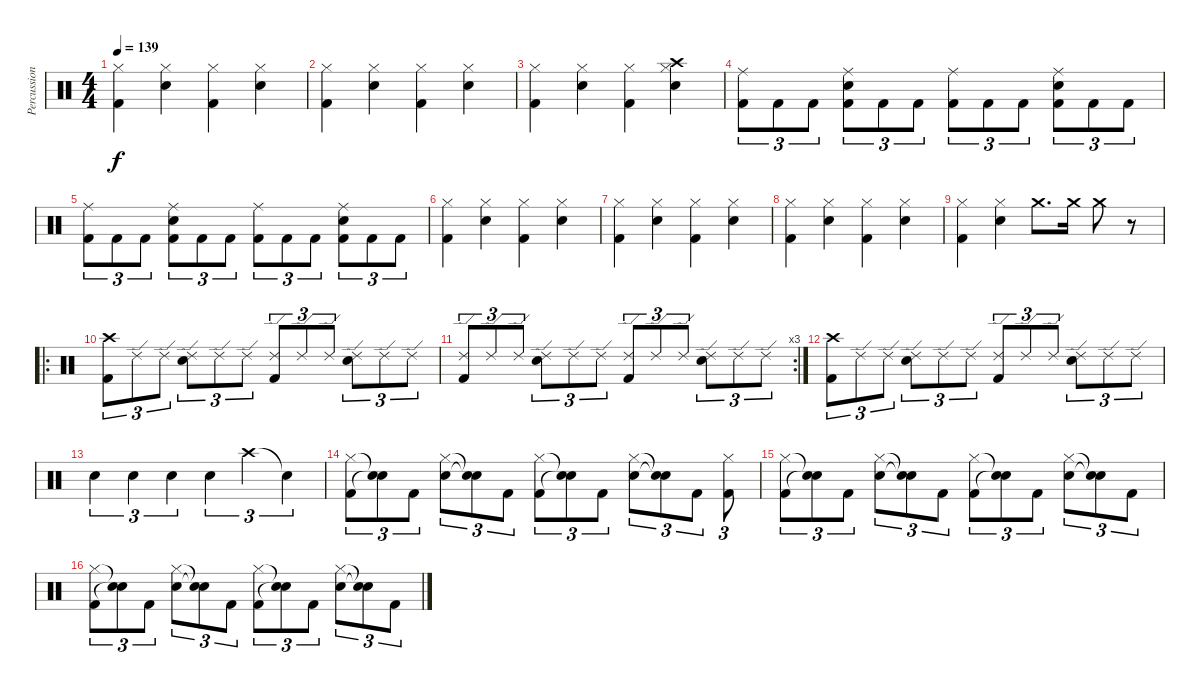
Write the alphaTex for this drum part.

\track ("Percussions" "Percussion") {instrument percussion}
\staff {score}
\articulation defaults
\ts (4 4)
\tempo 139
\clef neutral
\ks c
("Hi-Hat (closed)" "Kick (hit) 2").4{dy f} ("Hi-Hat (closed)" "Snare (hit) 2").4 ("Hi-Hat (closed)" "Kick (hit) 2").4 ("Hi-Hat (closed)" "Snare (hit) 2").4 |
("Hi-Hat (closed)" "Kick (hit) 2").4 ("Hi-Hat (closed)" "Snare (hit) 2").4 ("Hi-Hat (closed)" "Kick (hit) 2").4 ("Hi-Hat (closed)" "Snare (hit) 2").4 |
("Hi-Hat (closed)" "Kick (hit) 2").4 ("Hi-Hat (closed)" "Snare (hit) 2").4 ("Hi-Hat (closed)" "Kick (hit) 2").4 ("Hi-Hat (closed)" "Snare (hit) 2" "Crash high (hit)").4 |
("Kick (hit) 2" "Ride (middle)").8{tu (3 2)} "Kick (hit) 2".8{tu (3 2)} "Kick (hit) 2".8{tu (3 2)} ("Kick (hit) 2" "Ride (middle)" "Snare (hit) 2").8{tu (3 2)} "Kick (hit) 2".8{tu (3 2)} "Kick (hit) 2".8{tu (3 2)} ("Kick (hit) 2" "Ride (middle)").8{tu (3 2)} "Kick (hit) 2".8{tu (3 2)} "Kick (hit) 2".8{tu (3 2)} ("Kick (hit) 2" "Ride (middle)" "Snare (hit) 2").8{tu (3 2)} "Kick (hit) 2".8{tu (3 2)} "Kick (hit) 2".8{tu (3 2)} |
("Kick (hit) 2" "Ride (middle)").8{tu (3 2)} "Kick (hit) 2".8{tu (3 2)} "Kick (hit) 2".8{tu (3 2)} ("Kick (hit) 2" "Ride (middle)" "Snare (hit) 2").8{tu (3 2)} "Kick (hit) 2".8{tu (3 2)} "Kick (hit) 2".8{tu (3 2)} ("Kick (hit) 2" "Ride (middle)").8{tu (3 2)} "Kick (hit) 2".8{tu (3 2)} "Kick (hit) 2".8{tu (3 2)} ("Kick (hit) 2" "Ride (middle)" "Snare (hit) 2").8{tu (3 2)} "Kick (hit) 2".8{tu (3 2)} "Kick (hit) 2".8{tu (3 2)} |
("Hi-Hat (closed)" "Kick (hit) 2").4 ("Hi-Hat (closed)" "Snare (hit) 2").4 ("Hi-Hat (closed)" "Kick (hit) 2").4 ("Hi-Hat (closed)" "Snare (hit) 2").4 |
("Hi-Hat (closed)" "Kick (hit) 2").4 ("Hi-Hat (closed)" "Snare (hit) 2").4 ("Hi-Hat (closed)" "Kick (hit) 2").4 ("Hi-Hat (closed)" "Snare (hit) 2").4 |
("Hi-Hat (closed)" "Kick (hit) 2").4 ("Hi-Hat (closed)" "Snare (hit) 2").4 ("Hi-Hat (closed)" "Kick (hit) 2").4 ("Hi-Hat (closed)" "Snare (hit) 2").4 |
("Hi-Hat (closed)" "Kick (hit) 2").4 ("Hi-Hat (closed)" "Snare (hit) 2").4 "Crash medium (hit)".8{d} "Crash medium (hit)".16 "Crash medium (hit)".8 r.8 |
\ro
("Crash high (hit)" "Kick (hit) 2").8{tu (3 2)} "Ride (edge) 2".8{tu (3 2)} "Ride (edge) 2".8{tu (3 2)} ("Ride (edge) 2" "Snare (hit) 2").8{tu (3 2)} "Ride (edge) 2".8{tu (3 2)} "Ride (edge) 2".8{tu (3 2)} ("Ride (edge) 2" "Kick (hit) 2").8{tu (3 2)} "Ride (edge) 2".8{tu (3 2)} "Ride (edge) 2".8{tu (3 2)} ("Ride (edge) 2" "Snare (hit) 2").8{tu (3 2)} "Ride (edge) 2".8{tu (3 2)} "Ride (edge) 2".8{tu (3 2)} |
\rc 3
("Ride (edge) 2" "Kick (hit) 2").8{tu (3 2)} "Ride (edge) 2".8{tu (3 2)} "Ride (edge) 2".8{tu (3 2)} ("Ride (edge) 2" "Snare (hit) 2").8{tu (3 2)} "Ride (edge) 2".8{tu (3 2)} "Ride (edge) 2".8{tu (3 2)} ("Ride (edge) 2" "Kick (hit) 2").8{tu (3 2)} "Ride (edge) 2".8{tu (3 2)} "Ride (edge) 2".8{tu (3 2)} ("Ride (edge) 2" "Snare (hit) 2").8{tu (3 2)} "Ride (edge) 2".8{tu (3 2)} "Ride (edge) 2".8{tu (3 2)} |
("Crash high (hit)" "Kick (hit) 2").8{tu (3 2)} "Ride (edge) 2".8{tu (3 2)} "Ride (edge) 2".8{tu (3 2)} ("Ride (edge) 2" "Snare (hit) 2").8{tu (3 2)} "Ride (edge) 2".8{tu (3 2)} "Ride (edge) 2".8{tu (3 2)} ("Ride (edge) 2" "Kick (hit) 2").8{tu (3 2)} "Ride (edge) 2".8{tu (3 2)} "Ride (edge) 2".8{tu (3 2)} ("Ride (edge) 2" "Snare (hit) 2").8{tu (3 2)} "Ride (edge) 2".8{tu (3 2)} "Ride (edge) 2".8{tu (3 2)} |
"Snare (hit) 2".4{tu (3 2)} "Snare (hit) 2".4{tu (3 2)} "Snare (hit) 2".4{tu (3 2)} "Snare (hit) 2".4{tu (3 2)} "Crash high (hit)".4{tu (3 2)} "Snare (hit)"{t}.4{tu (3 2)} |
("Hi-Hat (closed)" "Kick (hit) 2").8{tu (3 2)} ("Snare (hit)"{t} "Snare (hit)"{t}).8{tu (3 2)} "Kick (hit) 2".8{tu (3 2)} ("Hi-Hat (closed)" "Snare (hit) 2").8{tu (3 2)} ("Snare (hit)"{t} "Snare (hit)"{t}).8{tu (3 2)} "Kick (hit) 2".8{tu (3 2)} ("Hi-Hat (closed)" "Kick (hit) 2").8{tu (3 2)} ("Snare (hit)"{t} "Snare (hit)"{t}).8{tu (3 2)} "Kick (hit) 2".8{tu (3 2)} ("Hi-Hat (closed)" "Snare (hit) 2").8{tu (3 2)} ("Snare (hit)"{t} "Snare (hit)"{t}).8{tu (3 2)} "Kick (hit) 2".8{tu (3 2)} ("Hi-Hat (closed)" "Kick (hit) 2").8{tu (3 2)} |
("Hi-Hat (closed)" "Kick (hit) 2").8{tu (3 2)} ("Snare (hit)"{t} "Snare (hit)"{t}).8{tu (3 2)} "Kick (hit) 2".8{tu (3 2)} ("Hi-Hat (closed)" "Snare (hit) 2").8{tu (3 2)} ("Snare (hit)"{t} "Snare (hit)"{t}).8{tu (3 2)} "Kick (hit) 2".8{tu (3 2)} ("Hi-Hat (closed)" "Kick (hit) 2").8{tu (3 2)} ("Snare (hit)"{t} "Snare (hit)"{t}).8{tu (3 2)} "Kick (hit) 2".8{tu (3 2)} ("Hi-Hat (closed)" "Snare (hit) 2").8{tu (3 2)} ("Snare (hit)"{t} "Snare (hit)"{t}).8{tu (3 2)} "Kick (hit) 2".8{tu (3 2)} |
("Hi-Hat (closed)" "Kick (hit) 2").8{tu (3 2)} ("Snare (hit)"{t} "Snare (hit)"{t}).8{tu (3 2)} "Kick (hit) 2".8{tu (3 2)} ("Hi-Hat (closed)" "Snare (hit) 2").8{tu (3 2)} ("Snare (hit)"{t} "Snare (hit)"{t}).8{tu (3 2)} "Kick (hit) 2".8{tu (3 2)} ("Hi-Hat (closed)" "Kick (hit) 2").8{tu (3 2)} ("Snare (hit)"{t} "Snare (hit)"{t}).8{tu (3 2)} "Kick (hit) 2".8{tu (3 2)} ("Hi-Hat (closed)" "Snare (hit) 2").8{tu (3 2)} ("Snare (hit)"{t} "Snare (hit)"{t}).8{tu (3 2)} "Kick (hit) 2".8{tu (3 2)}
